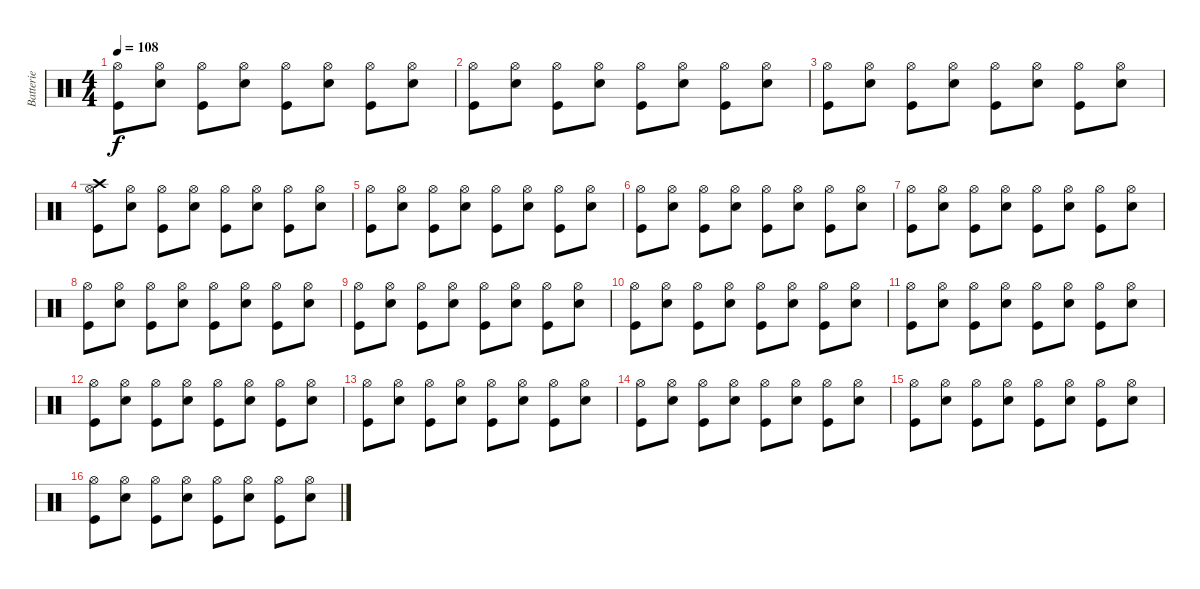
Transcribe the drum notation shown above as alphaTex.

\track ("Batterie" "Batterie") {instrument percussion}
\staff {score}
\articulation defaults
\ts (4 4)
\tempo 108
\clef neutral
\ks c
("Hi-Hat (open)" "Kick (hit)").8{dy f} ("Hi-Hat (open)" "Snare (hit) 2").8 ("Hi-Hat (open)" "Kick (hit)").8 ("Hi-Hat (open)" "Snare (hit) 2").8 ("Hi-Hat (open)" "Kick (hit)").8 ("Hi-Hat (open)" "Snare (hit) 2").8 ("Hi-Hat (open)" "Kick (hit)").8 ("Hi-Hat (open)" "Snare (hit) 2").8 |
("Hi-Hat (open)" "Kick (hit)").8 ("Hi-Hat (open)" "Snare (hit) 2").8 ("Hi-Hat (open)" "Kick (hit)").8 ("Hi-Hat (open)" "Snare (hit) 2").8 ("Hi-Hat (open)" "Kick (hit)").8 ("Hi-Hat (open)" "Snare (hit) 2").8 ("Hi-Hat (open)" "Kick (hit)").8 ("Hi-Hat (open)" "Snare (hit) 2").8 |
("Hi-Hat (open)" "Kick (hit)").8 ("Hi-Hat (open)" "Snare (hit) 2").8 ("Hi-Hat (open)" "Kick (hit)").8 ("Hi-Hat (open)" "Snare (hit) 2").8 ("Hi-Hat (open)" "Kick (hit)").8 ("Hi-Hat (open)" "Snare (hit) 2").8 ("Hi-Hat (open)" "Kick (hit)").8 ("Hi-Hat (open)" "Snare (hit) 2").8 |
("Crash high (hit)" "Hi-Hat (open)" "Kick (hit)").8 ("Hi-Hat (open)" "Snare (hit) 2").8 ("Hi-Hat (open)" "Kick (hit)").8 ("Hi-Hat (open)" "Snare (hit) 2").8 ("Hi-Hat (open)" "Kick (hit)").8 ("Hi-Hat (open)" "Snare (hit) 2").8 ("Hi-Hat (open)" "Kick (hit)").8 ("Hi-Hat (open)" "Snare (hit) 2").8 |
("Hi-Hat (open)" "Kick (hit)").8 ("Hi-Hat (open)" "Snare (hit) 2").8 ("Hi-Hat (open)" "Kick (hit)").8 ("Hi-Hat (open)" "Snare (hit) 2").8 ("Hi-Hat (open)" "Kick (hit)").8 ("Hi-Hat (open)" "Snare (hit) 2").8 ("Hi-Hat (open)" "Kick (hit)").8 ("Hi-Hat (open)" "Snare (hit) 2").8 |
("Hi-Hat (open)" "Kick (hit)").8 ("Hi-Hat (open)" "Snare (hit) 2").8 ("Hi-Hat (open)" "Kick (hit)").8 ("Hi-Hat (open)" "Snare (hit) 2").8 ("Hi-Hat (open)" "Kick (hit)").8 ("Hi-Hat (open)" "Snare (hit) 2").8 ("Hi-Hat (open)" "Kick (hit)").8 ("Hi-Hat (open)" "Snare (hit) 2").8 |
("Hi-Hat (open)" "Kick (hit)").8 ("Hi-Hat (open)" "Snare (hit) 2").8 ("Hi-Hat (open)" "Kick (hit)").8 ("Hi-Hat (open)" "Snare (hit) 2").8 ("Hi-Hat (open)" "Kick (hit)").8 ("Hi-Hat (open)" "Snare (hit) 2").8 ("Hi-Hat (open)" "Kick (hit)").8 ("Hi-Hat (open)" "Snare (hit) 2").8 |
("Hi-Hat (open)" "Kick (hit)").8 ("Hi-Hat (open)" "Snare (hit) 2").8 ("Hi-Hat (open)" "Kick (hit)").8 ("Hi-Hat (open)" "Snare (hit) 2").8 ("Hi-Hat (open)" "Kick (hit)").8 ("Hi-Hat (open)" "Snare (hit) 2").8 ("Hi-Hat (open)" "Kick (hit)").8 ("Hi-Hat (open)" "Snare (hit) 2").8 |
("Hi-Hat (open)" "Kick (hit)").8 ("Hi-Hat (open)" "Snare (hit) 2").8 ("Hi-Hat (open)" "Kick (hit)").8 ("Hi-Hat (open)" "Snare (hit) 2").8 ("Hi-Hat (open)" "Kick (hit)").8 ("Hi-Hat (open)" "Snare (hit) 2").8 ("Hi-Hat (open)" "Kick (hit)").8 ("Hi-Hat (open)" "Snare (hit) 2").8 |
("Hi-Hat (open)" "Kick (hit)").8 ("Hi-Hat (open)" "Snare (hit) 2").8 ("Hi-Hat (open)" "Kick (hit)").8 ("Hi-Hat (open)" "Snare (hit) 2").8 ("Hi-Hat (open)" "Kick (hit)").8 ("Hi-Hat (open)" "Snare (hit) 2").8 ("Hi-Hat (open)" "Kick (hit)").8 ("Hi-Hat (open)" "Snare (hit) 2").8 |
("Hi-Hat (open)" "Kick (hit)").8 ("Hi-Hat (open)" "Snare (hit) 2").8 ("Hi-Hat (open)" "Kick (hit)").8 ("Hi-Hat (open)" "Snare (hit) 2").8 ("Hi-Hat (open)" "Kick (hit)").8 ("Hi-Hat (open)" "Snare (hit) 2").8 ("Hi-Hat (open)" "Kick (hit)").8 ("Hi-Hat (open)" "Snare (hit) 2").8 |
("Hi-Hat (open)" "Kick (hit)").8 ("Hi-Hat (open)" "Snare (hit) 2").8 ("Hi-Hat (open)" "Kick (hit)").8 ("Hi-Hat (open)" "Snare (hit) 2").8 ("Hi-Hat (open)" "Kick (hit)").8 ("Hi-Hat (open)" "Snare (hit) 2").8 ("Hi-Hat (open)" "Kick (hit)").8 ("Hi-Hat (open)" "Snare (hit) 2").8 |
("Hi-Hat (open)" "Kick (hit)").8 ("Hi-Hat (open)" "Snare (hit) 2").8 ("Hi-Hat (open)" "Kick (hit)").8 ("Hi-Hat (open)" "Snare (hit) 2").8 ("Hi-Hat (open)" "Kick (hit)").8 ("Hi-Hat (open)" "Snare (hit) 2").8 ("Hi-Hat (open)" "Kick (hit)").8 ("Hi-Hat (open)" "Snare (hit) 2").8 |
("Hi-Hat (open)" "Kick (hit)").8 ("Hi-Hat (open)" "Snare (hit) 2").8 ("Hi-Hat (open)" "Kick (hit)").8 ("Hi-Hat (open)" "Snare (hit) 2").8 ("Hi-Hat (open)" "Kick (hit)").8 ("Hi-Hat (open)" "Snare (hit) 2").8 ("Hi-Hat (open)" "Kick (hit)").8 ("Hi-Hat (open)" "Snare (hit) 2").8 |
("Hi-Hat (open)" "Kick (hit)").8 ("Hi-Hat (open)" "Snare (hit) 2").8 ("Hi-Hat (open)" "Kick (hit)").8 ("Hi-Hat (open)" "Snare (hit) 2").8 ("Hi-Hat (open)" "Kick (hit)").8 ("Hi-Hat (open)" "Snare (hit) 2").8 ("Hi-Hat (open)" "Kick (hit)").8 ("Hi-Hat (open)" "Snare (hit) 2").8 |
("Hi-Hat (open)" "Kick (hit)").8 ("Hi-Hat (open)" "Snare (hit) 2").8 ("Hi-Hat (open)" "Kick (hit)").8 ("Hi-Hat (open)" "Snare (hit) 2").8 ("Hi-Hat (open)" "Kick (hit)").8 ("Hi-Hat (open)" "Snare (hit) 2").8 ("Hi-Hat (open)" "Kick (hit)").8 ("Hi-Hat (open)" "Snare (hit) 2").8
